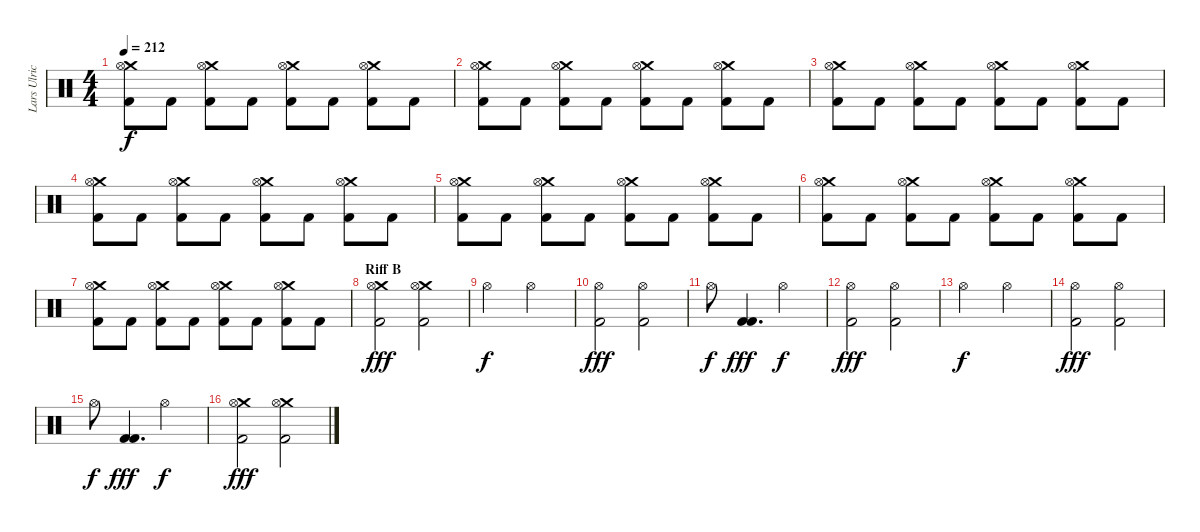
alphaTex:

\track ("Lars Ulrich" "Lars Ulric") {instrument percussion}
\staff {score}
\articulation defaults
\ts (4 4)
\tempo 212
\clef neutral
\ks c
("Crash medium (hit)" "Hi-Hat (open)" "Kick (hit) 2").8{dy f} "Kick (hit) 2".8 ("Crash medium (hit)" "Hi-Hat (open)" "Kick (hit) 2").8 "Kick (hit) 2".8 ("Crash medium (hit)" "Hi-Hat (open)" "Kick (hit) 2").8 "Kick (hit) 2".8 ("Crash medium (hit)" "Hi-Hat (open)" "Kick (hit) 2").8 "Kick (hit) 2".8 |
("Crash medium (hit)" "Hi-Hat (open)" "Kick (hit) 2").8 "Kick (hit) 2".8 ("Crash medium (hit)" "Hi-Hat (open)" "Kick (hit) 2").8 "Kick (hit) 2".8 ("Crash medium (hit)" "Hi-Hat (open)" "Kick (hit) 2").8 "Kick (hit) 2".8 ("Crash medium (hit)" "Hi-Hat (open)" "Kick (hit) 2").8 "Kick (hit) 2".8 |
("Crash medium (hit)" "Hi-Hat (open)" "Kick (hit) 2").8 "Kick (hit) 2".8 ("Crash medium (hit)" "Hi-Hat (open)" "Kick (hit) 2").8 "Kick (hit) 2".8 ("Crash medium (hit)" "Hi-Hat (open)" "Kick (hit) 2").8 "Kick (hit) 2".8 ("Crash medium (hit)" "Hi-Hat (open)" "Kick (hit) 2").8 "Kick (hit) 2".8 |
("Crash medium (hit)" "Hi-Hat (open)" "Kick (hit) 2").8 "Kick (hit) 2".8 ("Crash medium (hit)" "Hi-Hat (open)" "Kick (hit) 2").8 "Kick (hit) 2".8 ("Crash medium (hit)" "Hi-Hat (open)" "Kick (hit) 2").8 "Kick (hit) 2".8 ("Crash medium (hit)" "Hi-Hat (open)" "Kick (hit) 2").8 "Kick (hit) 2".8 |
("Crash medium (hit)" "Hi-Hat (open)" "Kick (hit) 2").8 "Kick (hit) 2".8 ("Crash medium (hit)" "Hi-Hat (open)" "Kick (hit) 2").8 "Kick (hit) 2".8 ("Crash medium (hit)" "Hi-Hat (open)" "Kick (hit) 2").8 "Kick (hit) 2".8 ("Crash medium (hit)" "Hi-Hat (open)" "Kick (hit) 2").8 "Kick (hit) 2".8 |
("Crash medium (hit)" "Hi-Hat (open)" "Kick (hit) 2").8 "Kick (hit) 2".8 ("Crash medium (hit)" "Hi-Hat (open)" "Kick (hit) 2").8 "Kick (hit) 2".8 ("Crash medium (hit)" "Hi-Hat (open)" "Kick (hit) 2").8 "Kick (hit) 2".8 ("Crash medium (hit)" "Hi-Hat (open)" "Kick (hit) 2").8 "Kick (hit) 2".8 |
("Crash medium (hit)" "Hi-Hat (open)" "Kick (hit) 2").8 "Kick (hit) 2".8 ("Crash medium (hit)" "Hi-Hat (open)" "Kick (hit) 2").8 "Kick (hit) 2".8 ("Crash medium (hit)" "Hi-Hat (open)" "Kick (hit) 2").8 "Kick (hit) 2".8 ("Crash medium (hit)" "Hi-Hat (open)" "Kick (hit) 2").8 "Kick (hit) 2".8 |
\section ("" "Riff B")
("Crash medium (hit)" "Hi-Hat (open)" "Kick (hit) 2").2{dy fff} ("Crash medium (hit)" "Hi-Hat (open)" "Kick (hit) 2").2 |
"Hi-Hat (open)".2{dy f} "Hi-Hat (open)".2 |
("Hi-Hat (open)" "Kick (hit) 2").2{dy fff} ("Hi-Hat (open)" "Kick (hit) 2").2 |
"Hi-Hat (open)".8{dy f} ("Kick (hit) 2" "Kick (hit) 2").4{d dy fff} "Hi-Hat (open)".2{dy f} |
("Hi-Hat (open)" "Kick (hit) 2").2{dy fff} ("Hi-Hat (open)" "Kick (hit) 2").2 |
"Hi-Hat (open)".2{dy f} "Hi-Hat (open)".2 |
("Hi-Hat (open)" "Kick (hit) 2").2{dy fff} ("Hi-Hat (open)" "Kick (hit) 2").2 |
"Hi-Hat (open)".8{dy f} ("Kick (hit) 2" "Kick (hit) 2").4{d dy fff} "Hi-Hat (open)".2{dy f} |
("Crash medium (hit)" "Hi-Hat (open)" "Kick (hit) 2").2{dy fff} ("Crash medium (hit)" "Hi-Hat (open)" "Kick (hit) 2").2
